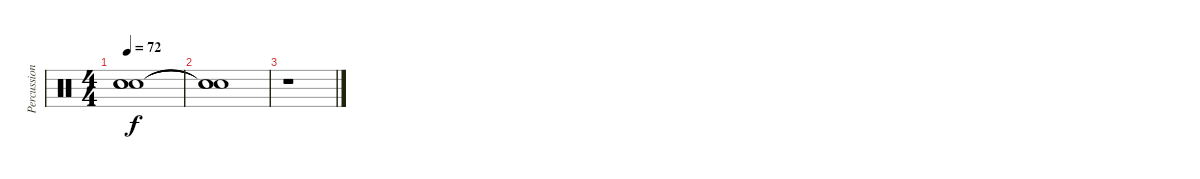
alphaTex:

\track ("Percussions" "Percussion") {instrument percussion}
\staff {score}
\articulation defaults
\ts (4 4)
\tempo 72
\clef neutral
\ks c
("Snare (hit)"{t} "Snare (hit)"{t} "Snare (hit)"{t}).1{dy f} |
("Snare (hit)"{t} "Snare (hit)"{t} "Snare (hit)"{t}).1 |
r.1
